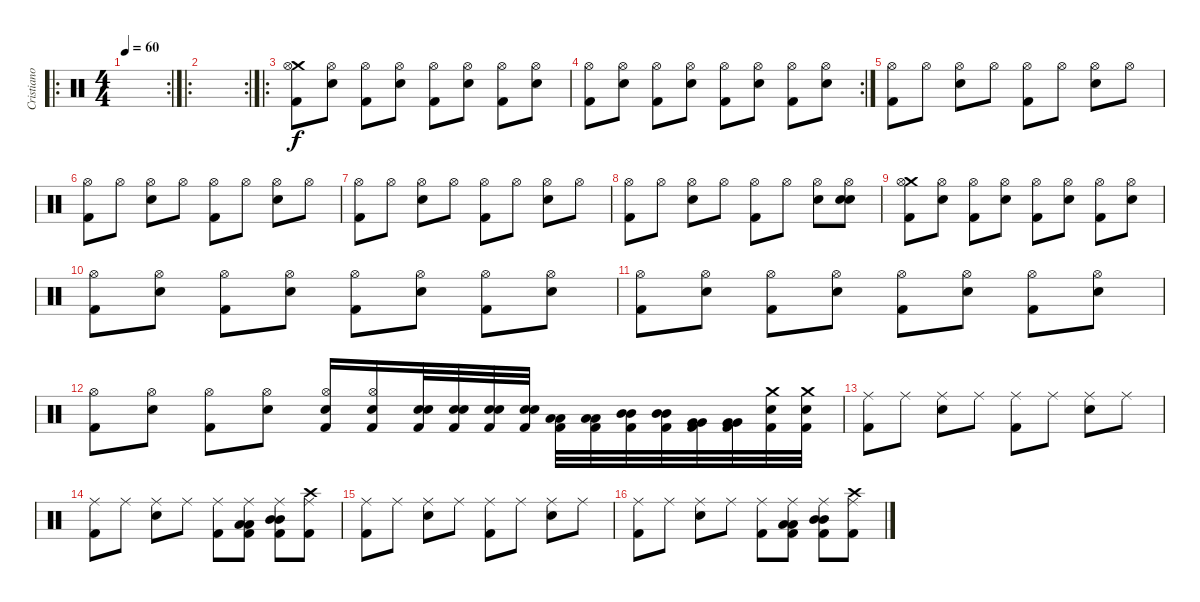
\track ("Cristiano Mozzati" "Cristiano ") {instrument percussion}
\staff {score}
\articulation defaults
\ro
\rc 2
\ts (4 4)
\tempo 60
\clef neutral
\ks c
|
\ro
\rc 2
|
\ro
("Crash medium (hit)" "Kick (hit) 2" "Hi-Hat (open)").8 ("Electric Snare (hit)" "Hi-Hat (open)").8 ("Kick (hit) 2" "Hi-Hat (open)").8 ("Electric Snare (hit)" "Hi-Hat (open)").8 ("Kick (hit) 2" "Hi-Hat (open)").8 ("Electric Snare (hit)" "Hi-Hat (open)").8 ("Kick (hit) 2" "Hi-Hat (open)").8 ("Electric Snare (hit)" "Hi-Hat (open)").8 |
\rc 2
("Kick (hit) 2" "Hi-Hat (open)").8 ("Electric Snare (hit)" "Hi-Hat (open)").8 ("Kick (hit) 2" "Hi-Hat (open)").8 ("Electric Snare (hit)" "Hi-Hat (open)").8 ("Kick (hit) 2" "Hi-Hat (open)").8 ("Electric Snare (hit)" "Hi-Hat (open)").8 ("Kick (hit) 2" "Hi-Hat (open)").8 ("Electric Snare (hit)" "Hi-Hat (open)").8 |
("Kick (hit) 2" "Hi-Hat (open)").8 "Hi-Hat (open)".8 ("Electric Snare (hit)" "Hi-Hat (open)").8 "Hi-Hat (open)".8 ("Kick (hit) 2" "Hi-Hat (open)").8 "Hi-Hat (open)".8 ("Electric Snare (hit)" "Hi-Hat (open)").8 "Hi-Hat (open)".8 |
("Kick (hit) 2" "Hi-Hat (open)").8 "Hi-Hat (open)".8 ("Electric Snare (hit)" "Hi-Hat (open)").8 "Hi-Hat (open)".8 ("Kick (hit) 2" "Hi-Hat (open)").8 "Hi-Hat (open)".8 ("Electric Snare (hit)" "Hi-Hat (open)").8 "Hi-Hat (open)".8 |
("Kick (hit) 2" "Hi-Hat (open)").8 "Hi-Hat (open)".8 ("Electric Snare (hit)" "Hi-Hat (open)").8 "Hi-Hat (open)".8 ("Kick (hit) 2" "Hi-Hat (open)").8 "Hi-Hat (open)".8 ("Electric Snare (hit)" "Hi-Hat (open)").8 "Hi-Hat (open)".8 |
("Kick (hit) 2" "Hi-Hat (open)").8 "Hi-Hat (open)".8 ("Electric Snare (hit)" "Hi-Hat (open)").8 "Hi-Hat (open)".8 ("Kick (hit) 2" "Hi-Hat (open)").8 "Hi-Hat (open)".8 ("Electric Snare (hit)" "Hi-Hat (open)").8 ("Electric Snare (hit)" "Electric Snare (hit)" "Hi-Hat (open)").8 |
("Crash medium (hit)" "Kick (hit) 2" "Hi-Hat (open)").8 ("Electric Snare (hit)" "Hi-Hat (open)").8 ("Kick (hit) 2" "Hi-Hat (open)").8 ("Electric Snare (hit)" "Hi-Hat (open)").8 ("Kick (hit) 2" "Hi-Hat (open)").8 ("Electric Snare (hit)" "Hi-Hat (open)").8 ("Kick (hit) 2" "Hi-Hat (open)").8 ("Electric Snare (hit)" "Hi-Hat (open)").8 |
("Kick (hit) 2" "Hi-Hat (open)").8 ("Electric Snare (hit)" "Hi-Hat (open)").8 ("Kick (hit) 2" "Hi-Hat (open)").8 ("Electric Snare (hit)" "Hi-Hat (open)").8 ("Kick (hit) 2" "Hi-Hat (open)").8 ("Electric Snare (hit)" "Hi-Hat (open)").8 ("Kick (hit) 2" "Hi-Hat (open)").8 ("Electric Snare (hit)" "Hi-Hat (open)").8 |
("Kick (hit) 2" "Hi-Hat (open)").8 ("Electric Snare (hit)" "Hi-Hat (open)").8 ("Kick (hit) 2" "Hi-Hat (open)").8 ("Electric Snare (hit)" "Hi-Hat (open)").8 ("Kick (hit) 2" "Hi-Hat (open)").8 ("Electric Snare (hit)" "Hi-Hat (open)").8 ("Kick (hit) 2" "Hi-Hat (open)").8 ("Electric Snare (hit)" "Hi-Hat (open)").8 |
("Kick (hit) 2" "Hi-Hat (open)").8 ("Electric Snare (hit)" "Hi-Hat (open)").8 ("Kick (hit) 2" "Hi-Hat (open)").8 ("Electric Snare (hit)" "Hi-Hat (open)").8 ("Kick (hit) 2" "Electric Snare (hit)" "Hi-Hat (open)").16 ("Kick (hit) 2" "Electric Snare (hit)" "Hi-Hat (open)").16 ("Electric Snare (hit)" "Electric Snare (hit)" "Kick (hit) 2").32 ("Electric Snare (hit)" "Electric Snare (hit)" "Kick (hit) 2").32 ("Electric Snare (hit)" "Electric Snare (hit)" "Kick (hit) 2").32 ("Electric Snare (hit)" "Electric Snare (hit)" "Kick (hit) 2").32 ("Low Tom (hit)" "Low Tom (hit)" "Kick (hit) 2").32 ("Low Tom (hit)" "Low Tom (hit)" "Kick (hit) 2").32 ("Mid Tom (hit)" "Mid Tom (hit)" "Kick (hit) 2").32 ("Mid Tom (hit)" "Mid Tom (hit)" "Kick (hit) 2").32 ("Very Low Tom (hit)" "Very Low Tom (hit)" "Kick (hit) 2").32 ("Very Low Tom (hit)" "Very Low Tom (hit)" "Kick (hit) 2").32 ("Electric Snare (hit)" "Crash medium (hit)" "Kick (hit) 2").32 ("Crash medium (hit)" "Electric Snare (hit)" "Kick (hit) 2").32 |
("Kick (hit) 2" "Ride (middle)").8 "Ride (middle)".8 ("Electric Snare (hit)" "Ride (middle)").8 "Ride (middle)".8 ("Kick (hit) 2" "Ride (middle)").8 "Ride (middle)".8 ("Electric Snare (hit)" "Ride (middle)").8 "Ride (middle)".8 |
("Kick (hit) 2" "Ride (middle)").8 "Ride (middle)".8 ("Electric Snare (hit)" "Ride (middle)").8 "Ride (middle)".8 ("Kick (hit) 2" "Ride (middle)").8 ("Low Tom (hit)" "Kick (hit) 2" "Low Tom (hit)" "Ride (middle)").8 ("Mid Tom (hit)" "Mid Tom (hit)" "Kick (hit) 2" "Ride (middle)").8 ("Crash high (hit)" "Kick (hit) 2" "Ride (middle)").8 |
("Kick (hit) 2" "Ride (middle)").8 "Ride (middle)".8 ("Electric Snare (hit)" "Ride (middle)").8 "Ride (middle)".8 ("Kick (hit) 2" "Ride (middle)").8 "Ride (middle)".8 ("Electric Snare (hit)" "Ride (middle)").8 "Ride (middle)".8 |
("Kick (hit) 2" "Ride (middle)").8 "Ride (middle)".8 ("Electric Snare (hit)" "Ride (middle)").8 "Ride (middle)".8 ("Kick (hit) 2" "Ride (middle)").8 ("Low Tom (hit)" "Kick (hit) 2" "Low Tom (hit)" "Ride (middle)").8 ("Mid Tom (hit)" "Mid Tom (hit)" "Kick (hit) 2" "Ride (middle)").8 ("Crash high (hit)" "Kick (hit) 2" "Ride (middle)").8
